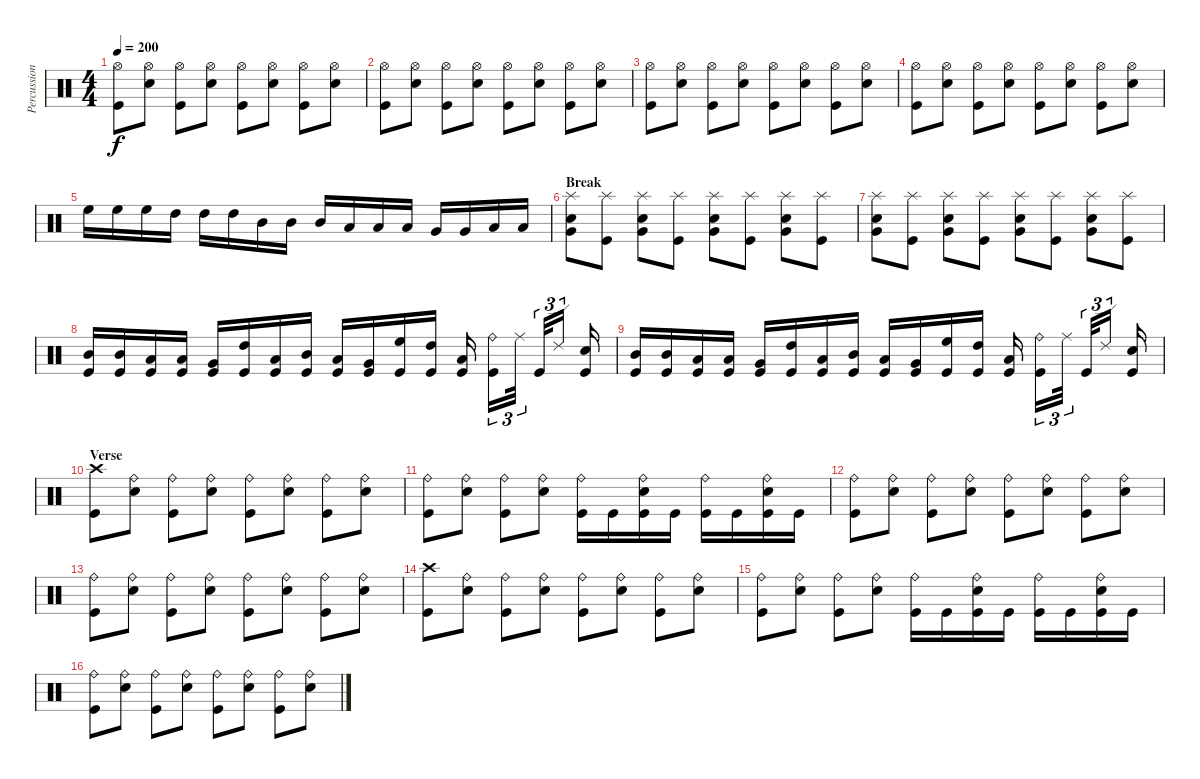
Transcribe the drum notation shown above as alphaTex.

\track ("Percussion" "Percussion") {instrument percussion}
\staff {score}
\articulation defaults
\ts (4 4)
\tempo 200
\clef neutral
\ks c
("Hi-Hat (open)" "Kick (hit)").8{dy f} ("Hi-Hat (open)" "Electric Snare (hit)").8 ("Hi-Hat (open)" "Kick (hit)").8 ("Hi-Hat (open)" "Electric Snare (hit)").8 ("Hi-Hat (open)" "Kick (hit)").8 ("Hi-Hat (open)" "Electric Snare (hit)").8 ("Hi-Hat (open)" "Kick (hit)").8 ("Hi-Hat (open)" "Electric Snare (hit)").8 |
("Hi-Hat (open)" "Kick (hit)").8 ("Hi-Hat (open)" "Electric Snare (hit)").8 ("Hi-Hat (open)" "Kick (hit)").8 ("Hi-Hat (open)" "Electric Snare (hit)").8 ("Hi-Hat (open)" "Kick (hit)").8 ("Hi-Hat (open)" "Electric Snare (hit)").8 ("Hi-Hat (open)" "Kick (hit)").8 ("Hi-Hat (open)" "Electric Snare (hit)").8 |
("Hi-Hat (open)" "Kick (hit)").8 ("Hi-Hat (open)" "Electric Snare (hit)").8 ("Hi-Hat (open)" "Kick (hit)").8 ("Hi-Hat (open)" "Electric Snare (hit)").8 ("Hi-Hat (open)" "Kick (hit)").8 ("Hi-Hat (open)" "Electric Snare (hit)").8 ("Hi-Hat (open)" "Kick (hit)").8 ("Hi-Hat (open)" "Electric Snare (hit)").8 |
("Hi-Hat (open)" "Kick (hit)").8 ("Hi-Hat (open)" "Electric Snare (hit)").8 ("Hi-Hat (open)" "Kick (hit)").8 ("Hi-Hat (open)" "Electric Snare (hit)").8 ("Hi-Hat (open)" "Kick (hit)").8 ("Hi-Hat (open)" "Electric Snare (hit)").8 ("Hi-Hat (open)" "Kick (hit)").8 ("Hi-Hat (open)" "Electric Snare (hit)").8 |
"High Floor Tom (hit)".16 "High Floor Tom (hit)".16 "High Floor Tom (hit)".16 "High Tom (hit)".16 "High Tom (hit)".16 "High Tom (hit)".16 "Mid Tom (hit)".16 "Mid Tom (hit)".16 "Mid Tom (hit)".16 "Low Tom (hit)".16 "Low Tom (hit)".16 "Low Tom (hit)".16 "Very Low Tom (hit)".16 "Very Low Tom (hit)".16 "Low Floor Tom (hit)".16 "Low Floor Tom (hit)".16 |
\section ("" "Break")
("Very Low Tom (hit)" "Splash (hit)" "Electric Snare (hit)").8 ("Splash (hit)" "Kick (hit)").8 ("Very Low Tom (hit)" "Splash (hit)" "Electric Snare (hit)").8 ("Splash (hit)" "Kick (hit)").8 ("Very Low Tom (hit)" "Splash (hit)" "Electric Snare (hit)").8 ("Splash (hit)" "Kick (hit)").8 ("Very Low Tom (hit)" "Splash (hit)" "Electric Snare (hit)").8 ("Splash (hit)" "Kick (hit)").8 |
("Very Low Tom (hit)" "Splash (hit)" "Electric Snare (hit)").8 ("Splash (hit)" "Kick (hit)").8 ("Very Low Tom (hit)" "Splash (hit)" "Electric Snare (hit)").8 ("Splash (hit)" "Kick (hit)").8 ("Very Low Tom (hit)" "Splash (hit)" "Electric Snare (hit)").8 ("Splash (hit)" "Kick (hit)").8 ("Very Low Tom (hit)" "Splash (hit)" "Electric Snare (hit)").8 ("Splash (hit)" "Kick (hit)").8 |
("Mid Tom (hit)" "Kick (hit)").16 ("Mid Tom (hit)" "Kick (hit)").16 ("Low Tom (hit)" "Kick (hit)").16 ("Low Tom (hit)" "Kick (hit)").16 ("Very Low Tom (hit)" "Kick (hit)").16 ("High Tom (hit)" "Kick (hit)").16 ("Low Tom (hit)" "Kick (hit)").16 ("Mid Tom (hit)" "Kick (hit)").16 ("Low Tom (hit)" "Kick (hit)").16 ("Very Low Tom (hit)" "Kick (hit)").16 ("High Floor Tom (hit)" "Kick (hit)").16 ("High Tom (hit)" "Kick (hit)").16 ("Low Tom (hit)" "Kick (hit)").16 ("Ride (bell)" "Kick (hit)").16{tu (3 2)} "Ride (middle)".32{tu (3 2)} "Kick (hit)".32{tu (3 2)} "Ride (edge) 2".16{tu (3 2)} ("Electric Snare (hit)" "Kick (hit)").16 |
("Mid Tom (hit)" "Kick (hit)").16 ("Mid Tom (hit)" "Kick (hit)").16 ("Low Tom (hit)" "Kick (hit)").16 ("Low Tom (hit)" "Kick (hit)").16 ("Very Low Tom (hit)" "Kick (hit)").16 ("High Tom (hit)" "Kick (hit)").16 ("Low Tom (hit)" "Kick (hit)").16 ("Mid Tom (hit)" "Kick (hit)").16 ("Low Tom (hit)" "Kick (hit)").16 ("Very Low Tom (hit)" "Kick (hit)").16 ("High Floor Tom (hit)" "Kick (hit)").16 ("High Tom (hit)" "Kick (hit)").16 ("Low Tom (hit)" "Kick (hit)").16 ("Ride (bell)" "Kick (hit)").16{tu (3 2)} "Ride (middle)".32{tu (3 2)} "Kick (hit)".32{tu (3 2)} "Ride (edge) 2".16{tu (3 2)} ("Electric Snare (hit)" "Kick (hit)").16 |
\section ("" "Verse")
("Crash high (hit)" "Kick (hit)").8 ("Ride (bell)" "Electric Snare (hit)").8 ("Ride (bell)" "Kick (hit)").8 ("Ride (bell)" "Electric Snare (hit)").8 ("Ride (bell)" "Kick (hit)").8 ("Ride (bell)" "Electric Snare (hit)").8 ("Ride (bell)" "Kick (hit)").8 ("Ride (bell)" "Electric Snare (hit)").8 |
("Ride (bell)" "Kick (hit)").8 ("Ride (bell)" "Electric Snare (hit)").8 ("Ride (bell)" "Kick (hit)").8 ("Ride (bell)" "Electric Snare (hit)").8 ("Ride (bell)" "Kick (hit)").16 "Kick (hit)".16 ("Ride (bell)" "Electric Snare (hit)" "Kick (hit)").16 "Kick (hit)".16 ("Ride (bell)" "Kick (hit)").16 "Kick (hit)".16 ("Ride (bell)" "Electric Snare (hit)" "Kick (hit)").16 "Kick (hit)".16 |
("Ride (bell)" "Kick (hit)").8 ("Ride (bell)" "Electric Snare (hit)").8 ("Ride (bell)" "Kick (hit)").8 ("Ride (bell)" "Electric Snare (hit)").8 ("Ride (bell)" "Kick (hit)").8 ("Ride (bell)" "Electric Snare (hit)").8 ("Ride (bell)" "Kick (hit)").8 ("Ride (bell)" "Electric Snare (hit)").8 |
("Ride (bell)" "Kick (hit)").8 ("Ride (bell)" "Electric Snare (hit)").8 ("Ride (bell)" "Kick (hit)").8 ("Ride (bell)" "Electric Snare (hit)").8 ("Ride (bell)" "Kick (hit)").8 ("Ride (bell)" "Electric Snare (hit)").8 ("Ride (bell)" "Kick (hit)").8 ("Ride (bell)" "Electric Snare (hit)").8 |
("Crash high (hit)" "Kick (hit)").8 ("Ride (bell)" "Electric Snare (hit)").8 ("Ride (bell)" "Kick (hit)").8 ("Ride (bell)" "Electric Snare (hit)").8 ("Ride (bell)" "Kick (hit)").8 ("Ride (bell)" "Electric Snare (hit)").8 ("Ride (bell)" "Kick (hit)").8 ("Ride (bell)" "Electric Snare (hit)").8 |
("Ride (bell)" "Kick (hit)").8 ("Ride (bell)" "Electric Snare (hit)").8 ("Ride (bell)" "Kick (hit)").8 ("Ride (bell)" "Electric Snare (hit)").8 ("Ride (bell)" "Kick (hit)").16 "Kick (hit)".16 ("Ride (bell)" "Electric Snare (hit)" "Kick (hit)").16 "Kick (hit)".16 ("Ride (bell)" "Kick (hit)").16 "Kick (hit)".16 ("Ride (bell)" "Electric Snare (hit)" "Kick (hit)").16 "Kick (hit)".16 |
("Ride (bell)" "Kick (hit)").8 ("Ride (bell)" "Electric Snare (hit)").8 ("Ride (bell)" "Kick (hit)").8 ("Ride (bell)" "Electric Snare (hit)").8 ("Ride (bell)" "Kick (hit)").8 ("Ride (bell)" "Electric Snare (hit)").8 ("Ride (bell)" "Kick (hit)").8 ("Ride (bell)" "Electric Snare (hit)").8
